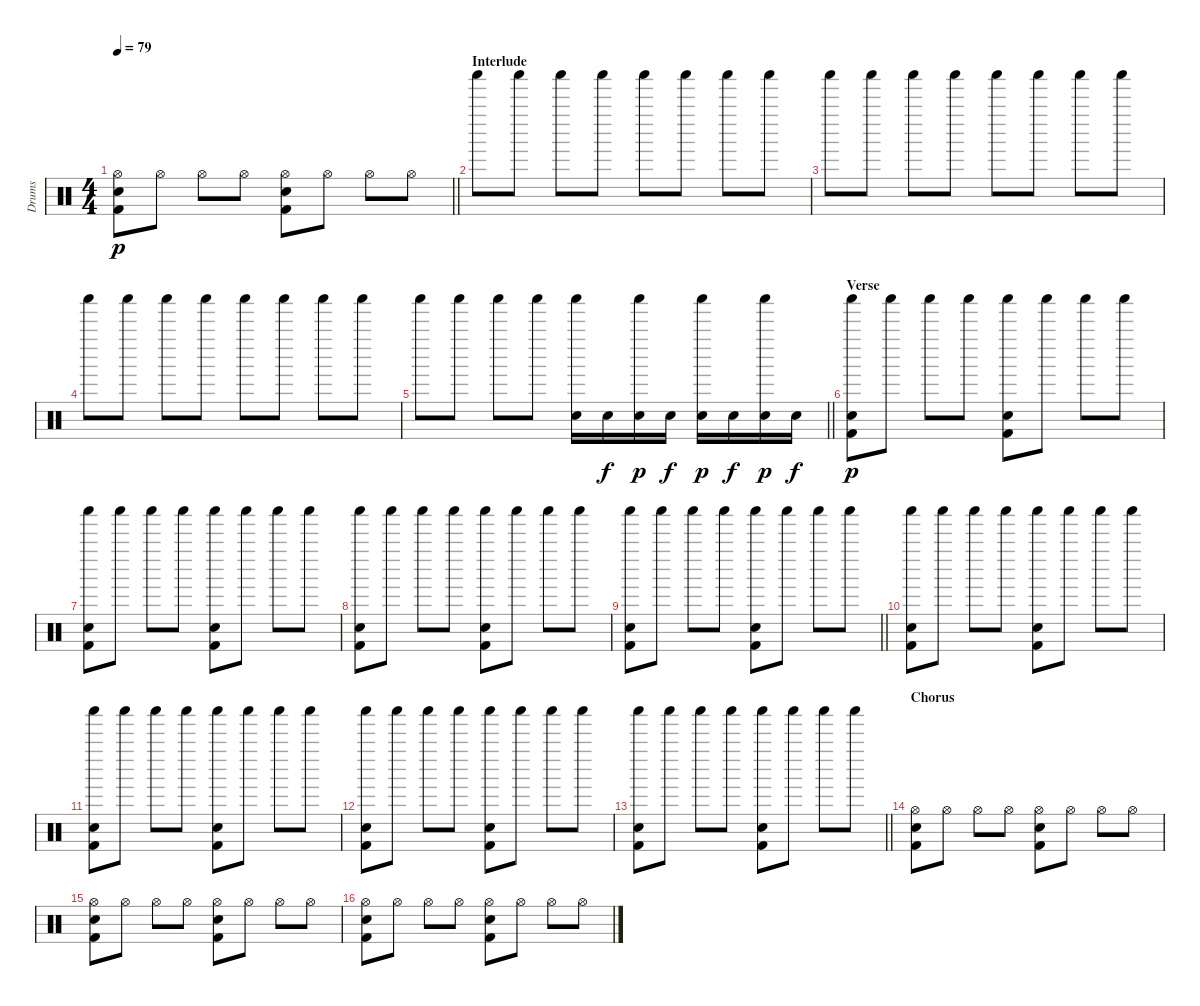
\track ("Drums" "Drums") {instrument percussion}
\staff
\articulation defaults
\ts (4 4)
\tempo 79
\clef neutral
\barLineRight lightlight
\ks c
("Hi-Hat (open)" "Electric Snare (hit)" "Kick (hit) 2").8{dy p} "Hi-Hat (open)".8 "Hi-Hat (open)".8 "Hi-Hat (open)".8 ("Hi-Hat (open)" "Electric Snare (hit)" "Kick (hit) 2").8 "Hi-Hat (open)".8 "Hi-Hat (open)".8 "Hi-Hat (open)".8 |
\section ("" "Interlude")
"Shaker (hit)".8 "Shaker (hit)".8 "Shaker (hit)".8 "Shaker (hit)".8 "Shaker (hit)".8 "Shaker (hit)".8 "Shaker (hit)".8 "Shaker (hit)".8 |
"Shaker (hit)".8 "Shaker (hit)".8 "Shaker (hit)".8 "Shaker (hit)".8 "Shaker (hit)".8 "Shaker (hit)".8 "Shaker (hit)".8 "Shaker (hit)".8 |
"Shaker (hit)".8 "Shaker (hit)".8 "Shaker (hit)".8 "Shaker (hit)".8 "Shaker (hit)".8 "Shaker (hit)".8 "Shaker (hit)".8 "Shaker (hit)".8 |
\barLineRight lightlight "Shaker (hit)".8 "Shaker (hit)".8 "Shaker (hit)".8 "Shaker (hit)".8
("Shaker (hit)" "Electric Snare (hit)").16 "Electric Snare (hit)".16{dy f} ("Shaker (hit)" "Electric Snare (hit)").16{dy p} "Electric Snare (hit)".16{dy f} ("Shaker (hit)" "Electric Snare (hit)").16{dy p} "Electric Snare (hit)".16{dy f} ("Shaker (hit)" "Electric Snare (hit)").16{dy p} "Electric Snare (hit)".16{dy f} |
\section ("" "Verse")
("Shaker (hit)" "Electric Snare (hit)" "Kick (hit) 2").8{dy p} "Shaker (hit)".8 "Shaker (hit)".8 "Shaker (hit)".8 ("Shaker (hit)" "Electric Snare (hit)" "Kick (hit) 2").8 "Shaker (hit)".8 "Shaker (hit)".8 "Shaker (hit)".8 |
("Shaker (hit)" "Electric Snare (hit)" "Kick (hit) 2").8 "Shaker (hit)".8 "Shaker (hit)".8 "Shaker (hit)".8 ("Shaker (hit)" "Electric Snare (hit)" "Kick (hit) 2").8 "Shaker (hit)".8 "Shaker (hit)".8 "Shaker (hit)".8 |
("Shaker (hit)" "Electric Snare (hit)" "Kick (hit) 2").8 "Shaker (hit)".8 "Shaker (hit)".8 "Shaker (hit)".8 ("Shaker (hit)" "Electric Snare (hit)" "Kick (hit) 2").8 "Shaker (hit)".8 "Shaker (hit)".8 "Shaker (hit)".8 |
\barLineRight lightlight
("Shaker (hit)" "Electric Snare (hit)" "Kick (hit) 2").8 "Shaker (hit)".8 "Shaker (hit)".8 "Shaker (hit)".8 ("Shaker (hit)" "Electric Snare (hit)" "Kick (hit) 2").8 "Shaker (hit)".8 "Shaker (hit)".8 "Shaker (hit)".8 |
("Shaker (hit)" "Electric Snare (hit)" "Kick (hit) 2").8 "Shaker (hit)".8 "Shaker (hit)".8 "Shaker (hit)".8 ("Shaker (hit)" "Electric Snare (hit)" "Kick (hit) 2").8 "Shaker (hit)".8 "Shaker (hit)".8 "Shaker (hit)".8 |
("Shaker (hit)" "Electric Snare (hit)" "Kick (hit) 2").8 "Shaker (hit)".8 "Shaker (hit)".8 "Shaker (hit)".8 ("Shaker (hit)" "Electric Snare (hit)" "Kick (hit) 2").8 "Shaker (hit)".8 "Shaker (hit)".8 "Shaker (hit)".8 |
("Shaker (hit)" "Electric Snare (hit)" "Kick (hit) 2").8 "Shaker (hit)".8 "Shaker (hit)".8 "Shaker (hit)".8 ("Shaker (hit)" "Electric Snare (hit)" "Kick (hit) 2").8 "Shaker (hit)".8 "Shaker (hit)".8 "Shaker (hit)".8 |
\barLineRight lightlight
("Shaker (hit)" "Electric Snare (hit)" "Kick (hit) 2").8 "Shaker (hit)".8 "Shaker (hit)".8 "Shaker (hit)".8 ("Shaker (hit)" "Electric Snare (hit)" "Kick (hit) 2").8 "Shaker (hit)".8 "Shaker (hit)".8 "Shaker (hit)".8 |
\section ("" "Chorus")
("Hi-Hat (open)" "Electric Snare (hit)" "Kick (hit) 2").8 "Hi-Hat (open)".8 "Hi-Hat (open)".8 "Hi-Hat (open)".8 ("Hi-Hat (open)" "Electric Snare (hit)" "Kick (hit) 2").8 "Hi-Hat (open)".8 "Hi-Hat (open)".8 "Hi-Hat (open)".8 |
("Hi-Hat (open)" "Electric Snare (hit)" "Kick (hit) 2").8 "Hi-Hat (open)".8 "Hi-Hat (open)".8 "Hi-Hat (open)".8 ("Hi-Hat (open)" "Electric Snare (hit)" "Kick (hit) 2").8 "Hi-Hat (open)".8 "Hi-Hat (open)".8 "Hi-Hat (open)".8 |
("Hi-Hat (open)" "Electric Snare (hit)" "Kick (hit) 2").8 "Hi-Hat (open)".8 "Hi-Hat (open)".8 "Hi-Hat (open)".8 ("Hi-Hat (open)" "Electric Snare (hit)" "Kick (hit) 2").8 "Hi-Hat (open)".8 "Hi-Hat (open)".8 "Hi-Hat (open)".8
